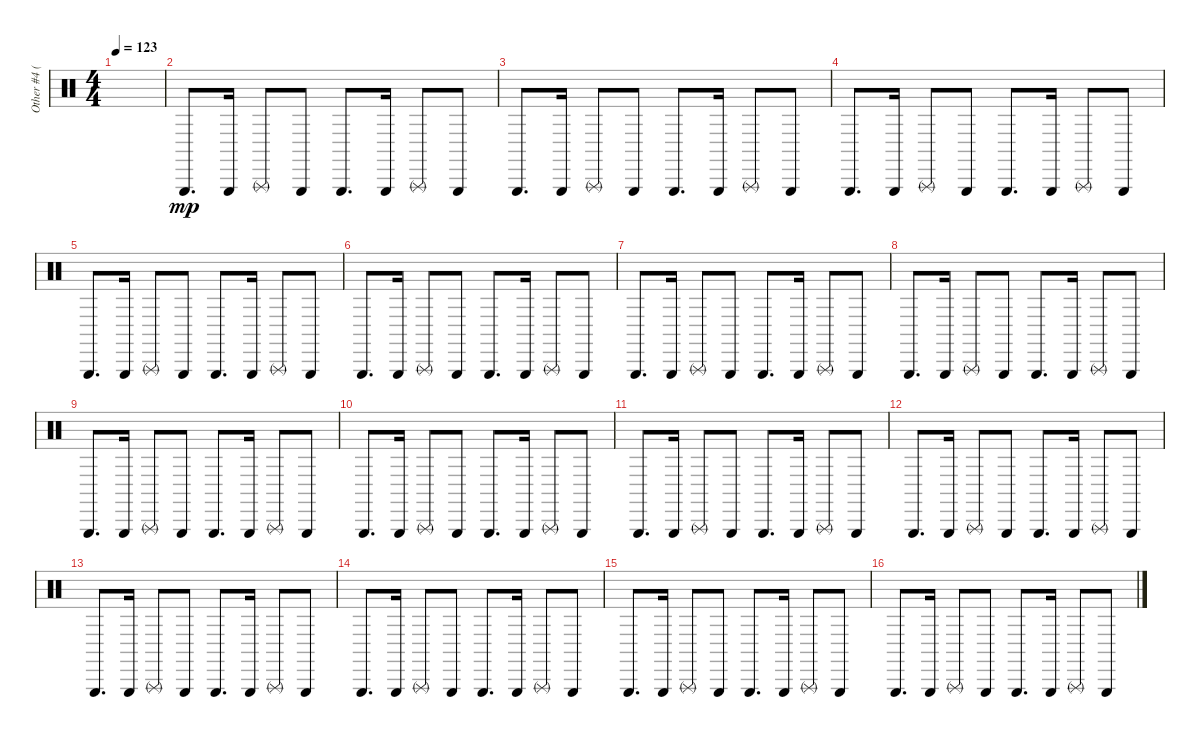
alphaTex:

\track ("Other #4 (Triangle)" "Other #4 (") {instrument percussion}
\staff {score}
\articulation defaults
\ts (4 4)
\tempo 123
\clef neutral
\ks c
|
"Triangle (hit)".8{d dy mp} "Triangle (hit)".16 "Triangle (rnute)".8 "Triangle (hit)".8 "Triangle (hit)".8{d} "Triangle (hit)".16 "Triangle (rnute)".8 "Triangle (hit)".8 |
"Triangle (hit)".8{d} "Triangle (hit)".16 "Triangle (rnute)".8 "Triangle (hit)".8 "Triangle (hit)".8{d} "Triangle (hit)".16 "Triangle (rnute)".8 "Triangle (hit)".8 |
"Triangle (hit)".8{d} "Triangle (hit)".16 "Triangle (rnute)".8 "Triangle (hit)".8 "Triangle (hit)".8{d} "Triangle (hit)".16 "Triangle (rnute)".8 "Triangle (hit)".8 |
"Triangle (hit)".8{d} "Triangle (hit)".16 "Triangle (rnute)".8 "Triangle (hit)".8 "Triangle (hit)".8{d} "Triangle (hit)".16 "Triangle (rnute)".8 "Triangle (hit)".8 |
"Triangle (hit)".8{d} "Triangle (hit)".16 "Triangle (rnute)".8 "Triangle (hit)".8 "Triangle (hit)".8{d} "Triangle (hit)".16 "Triangle (rnute)".8 "Triangle (hit)".8 |
"Triangle (hit)".8{d} "Triangle (hit)".16 "Triangle (rnute)".8 "Triangle (hit)".8 "Triangle (hit)".8{d} "Triangle (hit)".16 "Triangle (rnute)".8 "Triangle (hit)".8 |
"Triangle (hit)".8{d} "Triangle (hit)".16 "Triangle (rnute)".8 "Triangle (hit)".8 "Triangle (hit)".8{d} "Triangle (hit)".16 "Triangle (rnute)".8 "Triangle (hit)".8 |
"Triangle (hit)".8{d} "Triangle (hit)".16 "Triangle (rnute)".8 "Triangle (hit)".8 "Triangle (hit)".8{d} "Triangle (hit)".16 "Triangle (rnute)".8 "Triangle (hit)".8 |
"Triangle (hit)".8{d} "Triangle (hit)".16 "Triangle (rnute)".8 "Triangle (hit)".8 "Triangle (hit)".8{d} "Triangle (hit)".16 "Triangle (rnute)".8 "Triangle (hit)".8 |
"Triangle (hit)".8{d} "Triangle (hit)".16 "Triangle (rnute)".8 "Triangle (hit)".8 "Triangle (hit)".8{d} "Triangle (hit)".16 "Triangle (rnute)".8 "Triangle (hit)".8 |
"Triangle (hit)".8{d} "Triangle (hit)".16 "Triangle (rnute)".8 "Triangle (hit)".8 "Triangle (hit)".8{d} "Triangle (hit)".16 "Triangle (rnute)".8 "Triangle (hit)".8 |
"Triangle (hit)".8{d} "Triangle (hit)".16 "Triangle (rnute)".8 "Triangle (hit)".8 "Triangle (hit)".8{d} "Triangle (hit)".16 "Triangle (rnute)".8 "Triangle (hit)".8 |
"Triangle (hit)".8{d} "Triangle (hit)".16 "Triangle (rnute)".8 "Triangle (hit)".8 "Triangle (hit)".8{d} "Triangle (hit)".16 "Triangle (rnute)".8 "Triangle (hit)".8 |
"Triangle (hit)".8{d} "Triangle (hit)".16 "Triangle (rnute)".8 "Triangle (hit)".8 "Triangle (hit)".8{d} "Triangle (hit)".16 "Triangle (rnute)".8 "Triangle (hit)".8 |
"Triangle (hit)".8{d} "Triangle (hit)".16 "Triangle (rnute)".8 "Triangle (hit)".8 "Triangle (hit)".8{d} "Triangle (hit)".16 "Triangle (rnute)".8 "Triangle (hit)".8
